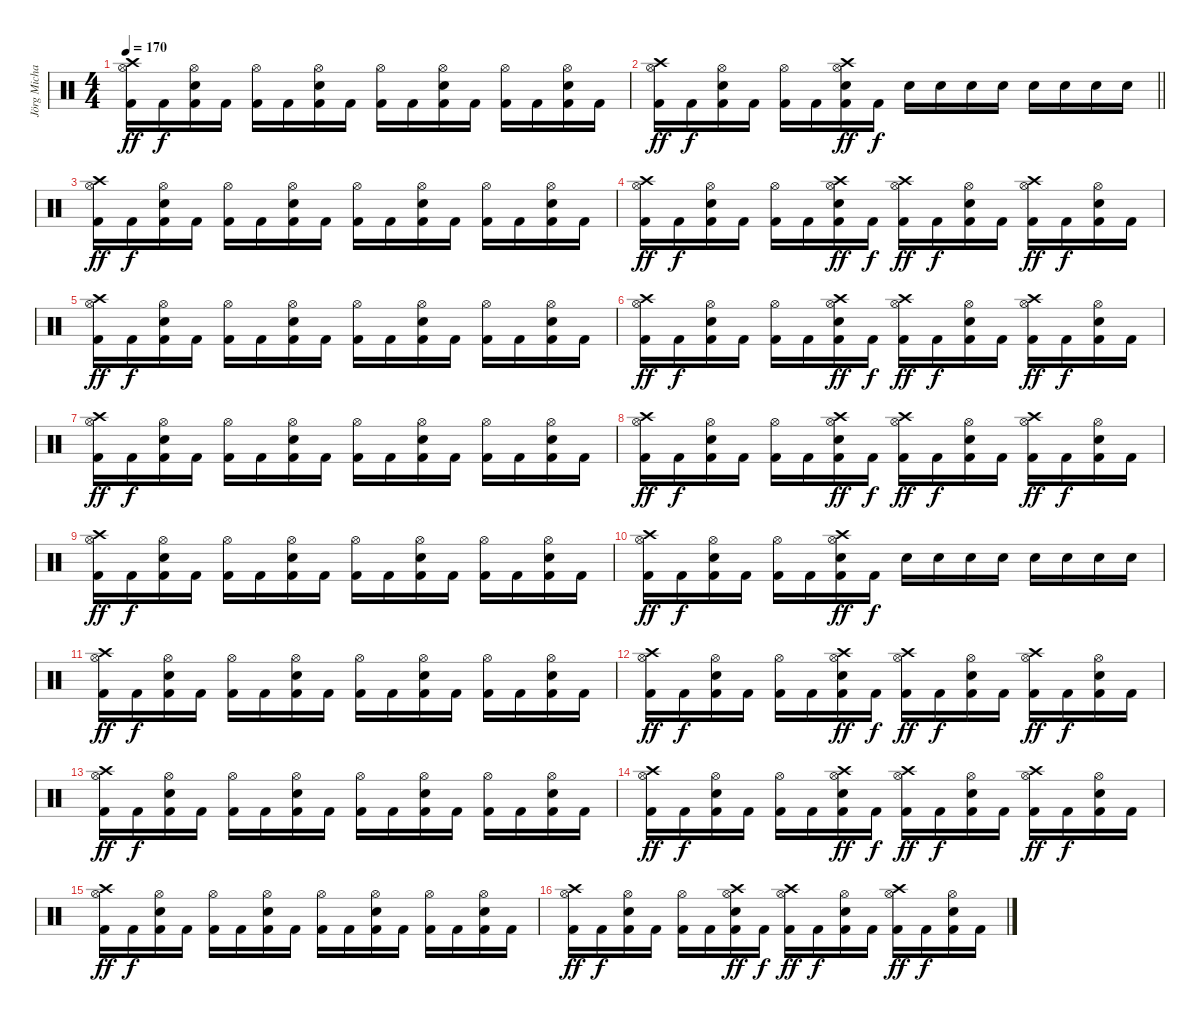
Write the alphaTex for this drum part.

\track ("Jörg Michael" "Jörg Micha") {instrument percussion}
\staff {score}
\articulation defaults
\ts (4 4)
\tempo 170
\clef neutral
\ks c
("Hi-Hat (open)" "Kick (hit) 2" "Crash high (hit)").16{dy ff} "Kick (hit) 2".16{dy f} ("Electric Snare (hit)" "Hi-Hat (open)" "Kick (hit) 2").16 "Kick (hit) 2".16 ("Hi-Hat (open)" "Kick (hit) 2").16 "Kick (hit) 2".16 ("Electric Snare (hit)" "Hi-Hat (open)" "Kick (hit) 2").16 "Kick (hit) 2".16 ("Hi-Hat (open)" "Kick (hit) 2").16 "Kick (hit) 2".16 ("Electric Snare (hit)" "Hi-Hat (open)" "Kick (hit) 2").16 "Kick (hit) 2".16 ("Hi-Hat (open)" "Kick (hit) 2").16 "Kick (hit) 2".16 ("Electric Snare (hit)" "Hi-Hat (open)" "Kick (hit) 2").16 "Kick (hit) 2".16 |
\barLineRight lightlight
("Hi-Hat (open)" "Kick (hit) 2" "Crash high (hit)").16{dy ff} "Kick (hit) 2".16{dy f} ("Electric Snare (hit)" "Hi-Hat (open)" "Kick (hit) 2").16 "Kick (hit) 2".16 ("Hi-Hat (open)" "Kick (hit) 2").16 "Kick (hit) 2".16 ("Electric Snare (hit)" "Hi-Hat (open)" "Kick (hit) 2" "Crash high (hit)").16{dy ff} "Kick (hit) 2".16{dy f} "Electric Snare (hit)".16 "Electric Snare (hit)".16 "Electric Snare (hit)".16 "Electric Snare (hit)".16 "Electric Snare (hit)".16 "Electric Snare (hit)".16 "Electric Snare (hit)".16 "Electric Snare (hit)".16 |
("Hi-Hat (open)" "Kick (hit) 2" "Crash high (hit)").16{dy ff} "Kick (hit) 2".16{dy f} ("Electric Snare (hit)" "Hi-Hat (open)" "Kick (hit) 2").16 "Kick (hit) 2".16 ("Hi-Hat (open)" "Kick (hit) 2").16 "Kick (hit) 2".16 ("Electric Snare (hit)" "Hi-Hat (open)" "Kick (hit) 2").16 "Kick (hit) 2".16 ("Hi-Hat (open)" "Kick (hit) 2").16 "Kick (hit) 2".16 ("Electric Snare (hit)" "Hi-Hat (open)" "Kick (hit) 2").16 "Kick (hit) 2".16 ("Hi-Hat (open)" "Kick (hit) 2").16 "Kick (hit) 2".16 ("Electric Snare (hit)" "Hi-Hat (open)" "Kick (hit) 2").16 "Kick (hit) 2".16 |
("Hi-Hat (open)" "Kick (hit) 2" "Crash high (hit)").16{dy ff} "Kick (hit) 2".16{dy f} ("Electric Snare (hit)" "Hi-Hat (open)" "Kick (hit) 2").16 "Kick (hit) 2".16 ("Hi-Hat (open)" "Kick (hit) 2").16 "Kick (hit) 2".16 ("Electric Snare (hit)" "Hi-Hat (open)" "Kick (hit) 2" "Crash high (hit)").16{dy ff} "Kick (hit) 2".16{dy f} ("Hi-Hat (open)" "Kick (hit) 2" "Crash high (hit)").16{dy ff} "Kick (hit) 2".16{dy f} ("Electric Snare (hit)" "Hi-Hat (open)" "Kick (hit) 2").16 "Kick (hit) 2".16 ("Hi-Hat (open)" "Kick (hit) 2" "Crash high (hit)").16{dy ff} "Kick (hit) 2".16{dy f} ("Electric Snare (hit)" "Hi-Hat (open)" "Kick (hit) 2").16 "Kick (hit) 2".16 |
("Hi-Hat (open)" "Kick (hit) 2" "Crash high (hit)").16{dy ff} "Kick (hit) 2".16{dy f} ("Electric Snare (hit)" "Hi-Hat (open)" "Kick (hit) 2").16 "Kick (hit) 2".16 ("Hi-Hat (open)" "Kick (hit) 2").16 "Kick (hit) 2".16 ("Electric Snare (hit)" "Hi-Hat (open)" "Kick (hit) 2").16 "Kick (hit) 2".16 ("Hi-Hat (open)" "Kick (hit) 2").16 "Kick (hit) 2".16 ("Electric Snare (hit)" "Hi-Hat (open)" "Kick (hit) 2").16 "Kick (hit) 2".16 ("Hi-Hat (open)" "Kick (hit) 2").16 "Kick (hit) 2".16 ("Electric Snare (hit)" "Hi-Hat (open)" "Kick (hit) 2").16 "Kick (hit) 2".16 |
("Hi-Hat (open)" "Kick (hit) 2" "Crash high (hit)").16{dy ff} "Kick (hit) 2".16{dy f} ("Electric Snare (hit)" "Hi-Hat (open)" "Kick (hit) 2").16 "Kick (hit) 2".16 ("Hi-Hat (open)" "Kick (hit) 2").16 "Kick (hit) 2".16 ("Electric Snare (hit)" "Hi-Hat (open)" "Kick (hit) 2" "Crash high (hit)").16{dy ff} "Kick (hit) 2".16{dy f} ("Hi-Hat (open)" "Kick (hit) 2" "Crash high (hit)").16{dy ff} "Kick (hit) 2".16{dy f} ("Electric Snare (hit)" "Hi-Hat (open)" "Kick (hit) 2").16 "Kick (hit) 2".16 ("Hi-Hat (open)" "Kick (hit) 2" "Crash high (hit)").16{dy ff} "Kick (hit) 2".16{dy f} ("Electric Snare (hit)" "Hi-Hat (open)" "Kick (hit) 2").16 "Kick (hit) 2".16 |
("Hi-Hat (open)" "Kick (hit) 2" "Crash high (hit)").16{dy ff} "Kick (hit) 2".16{dy f} ("Electric Snare (hit)" "Hi-Hat (open)" "Kick (hit) 2").16 "Kick (hit) 2".16 ("Hi-Hat (open)" "Kick (hit) 2").16 "Kick (hit) 2".16 ("Electric Snare (hit)" "Hi-Hat (open)" "Kick (hit) 2").16 "Kick (hit) 2".16 ("Hi-Hat (open)" "Kick (hit) 2").16 "Kick (hit) 2".16 ("Electric Snare (hit)" "Hi-Hat (open)" "Kick (hit) 2").16 "Kick (hit) 2".16 ("Hi-Hat (open)" "Kick (hit) 2").16 "Kick (hit) 2".16 ("Electric Snare (hit)" "Hi-Hat (open)" "Kick (hit) 2").16 "Kick (hit) 2".16 |
("Hi-Hat (open)" "Kick (hit) 2" "Crash high (hit)").16{dy ff} "Kick (hit) 2".16{dy f} ("Electric Snare (hit)" "Hi-Hat (open)" "Kick (hit) 2").16 "Kick (hit) 2".16 ("Hi-Hat (open)" "Kick (hit) 2").16 "Kick (hit) 2".16 ("Electric Snare (hit)" "Hi-Hat (open)" "Kick (hit) 2" "Crash high (hit)").16{dy ff} "Kick (hit) 2".16{dy f} ("Hi-Hat (open)" "Kick (hit) 2" "Crash high (hit)").16{dy ff} "Kick (hit) 2".16{dy f} ("Electric Snare (hit)" "Hi-Hat (open)" "Kick (hit) 2").16 "Kick (hit) 2".16 ("Hi-Hat (open)" "Kick (hit) 2" "Crash high (hit)").16{dy ff} "Kick (hit) 2".16{dy f} ("Electric Snare (hit)" "Hi-Hat (open)" "Kick (hit) 2").16 "Kick (hit) 2".16 |
("Hi-Hat (open)" "Kick (hit) 2" "Crash high (hit)").16{dy ff} "Kick (hit) 2".16{dy f} ("Electric Snare (hit)" "Hi-Hat (open)" "Kick (hit) 2").16 "Kick (hit) 2".16 ("Hi-Hat (open)" "Kick (hit) 2").16 "Kick (hit) 2".16 ("Electric Snare (hit)" "Hi-Hat (open)" "Kick (hit) 2").16 "Kick (hit) 2".16 ("Hi-Hat (open)" "Kick (hit) 2").16 "Kick (hit) 2".16 ("Electric Snare (hit)" "Hi-Hat (open)" "Kick (hit) 2").16 "Kick (hit) 2".16 ("Hi-Hat (open)" "Kick (hit) 2").16 "Kick (hit) 2".16 ("Electric Snare (hit)" "Hi-Hat (open)" "Kick (hit) 2").16 "Kick (hit) 2".16 |
("Hi-Hat (open)" "Kick (hit) 2" "Crash high (hit)").16{dy ff} "Kick (hit) 2".16{dy f} ("Electric Snare (hit)" "Hi-Hat (open)" "Kick (hit) 2").16 "Kick (hit) 2".16 ("Hi-Hat (open)" "Kick (hit) 2").16 "Kick (hit) 2".16 ("Electric Snare (hit)" "Hi-Hat (open)" "Kick (hit) 2" "Crash high (hit)").16{dy ff} "Kick (hit) 2".16{dy f} "Electric Snare (hit)".16 "Electric Snare (hit)".16 "Electric Snare (hit)".16 "Electric Snare (hit)".16 "Electric Snare (hit)".16 "Electric Snare (hit)".16 "Electric Snare (hit)".16 "Electric Snare (hit)".16 |
("Hi-Hat (open)" "Kick (hit) 2" "Crash high (hit)").16{dy ff} "Kick (hit) 2".16{dy f} ("Electric Snare (hit)" "Hi-Hat (open)" "Kick (hit) 2").16 "Kick (hit) 2".16 ("Hi-Hat (open)" "Kick (hit) 2").16 "Kick (hit) 2".16 ("Electric Snare (hit)" "Hi-Hat (open)" "Kick (hit) 2").16 "Kick (hit) 2".16 ("Hi-Hat (open)" "Kick (hit) 2").16 "Kick (hit) 2".16 ("Electric Snare (hit)" "Hi-Hat (open)" "Kick (hit) 2").16 "Kick (hit) 2".16 ("Hi-Hat (open)" "Kick (hit) 2").16 "Kick (hit) 2".16 ("Electric Snare (hit)" "Hi-Hat (open)" "Kick (hit) 2").16 "Kick (hit) 2".16 |
("Hi-Hat (open)" "Kick (hit) 2" "Crash high (hit)").16{dy ff} "Kick (hit) 2".16{dy f} ("Electric Snare (hit)" "Hi-Hat (open)" "Kick (hit) 2").16 "Kick (hit) 2".16 ("Hi-Hat (open)" "Kick (hit) 2").16 "Kick (hit) 2".16 ("Electric Snare (hit)" "Hi-Hat (open)" "Kick (hit) 2" "Crash high (hit)").16{dy ff} "Kick (hit) 2".16{dy f} ("Hi-Hat (open)" "Kick (hit) 2" "Crash high (hit)").16{dy ff} "Kick (hit) 2".16{dy f} ("Electric Snare (hit)" "Hi-Hat (open)" "Kick (hit) 2").16 "Kick (hit) 2".16 ("Hi-Hat (open)" "Kick (hit) 2" "Crash high (hit)").16{dy ff} "Kick (hit) 2".16{dy f} ("Electric Snare (hit)" "Hi-Hat (open)" "Kick (hit) 2").16 "Kick (hit) 2".16 |
("Hi-Hat (open)" "Kick (hit) 2" "Crash high (hit)").16{dy ff} "Kick (hit) 2".16{dy f} ("Electric Snare (hit)" "Hi-Hat (open)" "Kick (hit) 2").16 "Kick (hit) 2".16 ("Hi-Hat (open)" "Kick (hit) 2").16 "Kick (hit) 2".16 ("Electric Snare (hit)" "Hi-Hat (open)" "Kick (hit) 2").16 "Kick (hit) 2".16 ("Hi-Hat (open)" "Kick (hit) 2").16 "Kick (hit) 2".16 ("Electric Snare (hit)" "Hi-Hat (open)" "Kick (hit) 2").16 "Kick (hit) 2".16 ("Hi-Hat (open)" "Kick (hit) 2").16 "Kick (hit) 2".16 ("Electric Snare (hit)" "Hi-Hat (open)" "Kick (hit) 2").16 "Kick (hit) 2".16 |
("Hi-Hat (open)" "Kick (hit) 2" "Crash high (hit)").16{dy ff} "Kick (hit) 2".16{dy f} ("Electric Snare (hit)" "Hi-Hat (open)" "Kick (hit) 2").16 "Kick (hit) 2".16 ("Hi-Hat (open)" "Kick (hit) 2").16 "Kick (hit) 2".16 ("Electric Snare (hit)" "Hi-Hat (open)" "Kick (hit) 2" "Crash high (hit)").16{dy ff} "Kick (hit) 2".16{dy f} ("Hi-Hat (open)" "Kick (hit) 2" "Crash high (hit)").16{dy ff} "Kick (hit) 2".16{dy f} ("Electric Snare (hit)" "Hi-Hat (open)" "Kick (hit) 2").16 "Kick (hit) 2".16 ("Hi-Hat (open)" "Kick (hit) 2" "Crash high (hit)").16{dy ff} "Kick (hit) 2".16{dy f} ("Electric Snare (hit)" "Hi-Hat (open)" "Kick (hit) 2").16 "Kick (hit) 2".16 |
("Hi-Hat (open)" "Kick (hit) 2" "Crash high (hit)").16{dy ff} "Kick (hit) 2".16{dy f} ("Electric Snare (hit)" "Hi-Hat (open)" "Kick (hit) 2").16 "Kick (hit) 2".16 ("Hi-Hat (open)" "Kick (hit) 2").16 "Kick (hit) 2".16 ("Electric Snare (hit)" "Hi-Hat (open)" "Kick (hit) 2").16 "Kick (hit) 2".16 ("Hi-Hat (open)" "Kick (hit) 2").16 "Kick (hit) 2".16 ("Electric Snare (hit)" "Hi-Hat (open)" "Kick (hit) 2").16 "Kick (hit) 2".16 ("Hi-Hat (open)" "Kick (hit) 2").16 "Kick (hit) 2".16 ("Electric Snare (hit)" "Hi-Hat (open)" "Kick (hit) 2").16 "Kick (hit) 2".16 |
("Hi-Hat (open)" "Kick (hit) 2" "Crash high (hit)").16{dy ff} "Kick (hit) 2".16{dy f} ("Electric Snare (hit)" "Hi-Hat (open)" "Kick (hit) 2").16 "Kick (hit) 2".16 ("Hi-Hat (open)" "Kick (hit) 2").16 "Kick (hit) 2".16 ("Electric Snare (hit)" "Hi-Hat (open)" "Kick (hit) 2" "Crash high (hit)").16{dy ff} "Kick (hit) 2".16{dy f} ("Hi-Hat (open)" "Kick (hit) 2" "Crash high (hit)").16{dy ff} "Kick (hit) 2".16{dy f} ("Electric Snare (hit)" "Hi-Hat (open)" "Kick (hit) 2").16 "Kick (hit) 2".16 ("Hi-Hat (open)" "Kick (hit) 2" "Crash high (hit)").16{dy ff} "Kick (hit) 2".16{dy f} ("Electric Snare (hit)" "Hi-Hat (open)" "Kick (hit) 2").16 "Kick (hit) 2".16
